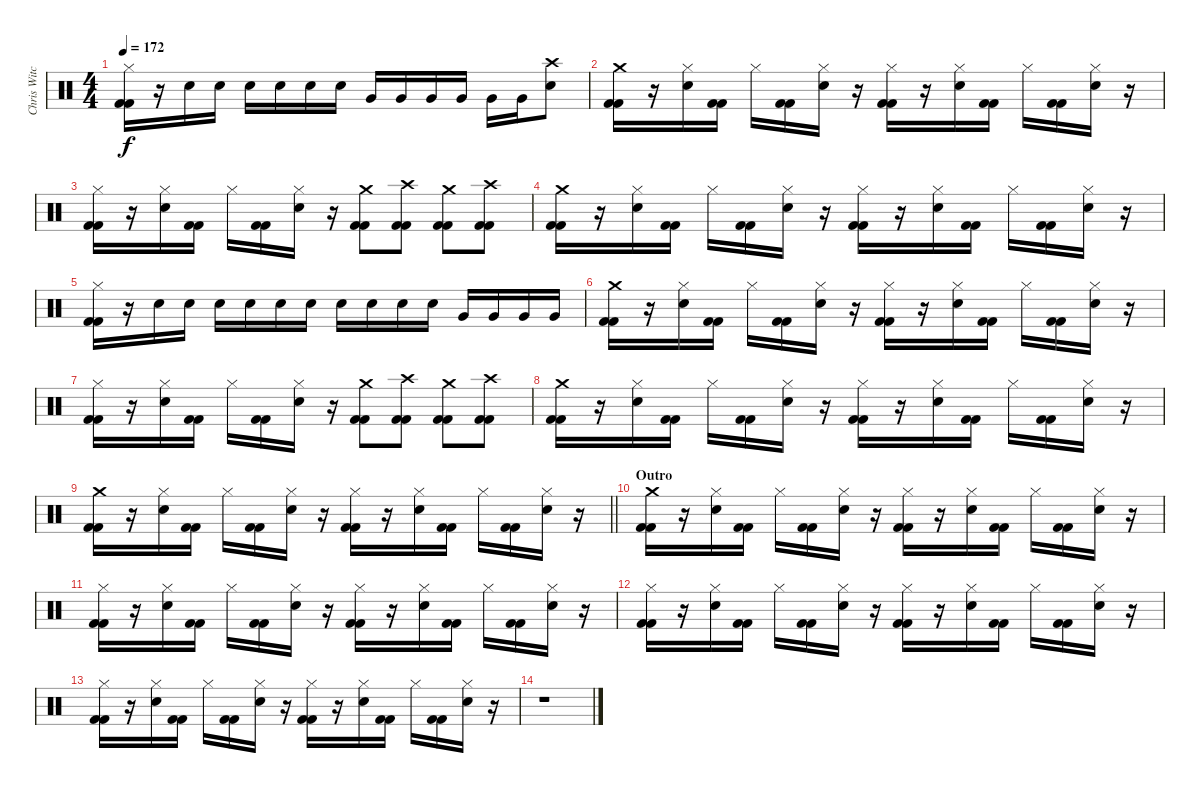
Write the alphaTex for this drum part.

\track ("Chris Witchhunter" "Chris Witc") {instrument percussion}
\staff {score}
\articulation defaults
\ts (4 4)
\tempo 172
\clef neutral
\ks c
("Kick (hit) 2" "Kick (hit) 2" "Hi-Hat (closed)").16{dy f} r.16 "Snare (hit) 2".16 "Snare (hit) 2".16 "Snare (hit) 2".16 "Snare (hit) 2".16 "Snare (hit) 2".16 "Snare (hit) 2".16 "Very Low Tom (hit)".16 "Very Low Tom (hit)".16 "Very Low Tom (hit)".16 "Very Low Tom (hit)".16 "Very Low Tom (hit)".16 "Very Low Tom (hit)".16 ("Crash high (hit)" "Snare (hit) 2").8 |
("Kick (hit) 2" "Kick (hit) 2" "Crash medium (hit)").16 r.16 ("Snare (hit) 2" "Hi-Hat (closed)").16 ("Kick (hit) 2" "Kick (hit) 2").16 "Hi-Hat (closed)".16 ("Kick (hit) 2" "Kick (hit) 2").16 ("Snare (hit) 2" "Hi-Hat (closed)").16 r.16 ("Kick (hit) 2" "Kick (hit) 2" "Hi-Hat (closed)").16 r.16 ("Snare (hit) 2" "Hi-Hat (closed)").16 ("Kick (hit) 2" "Kick (hit) 2").16 "Hi-Hat (closed)".16 ("Kick (hit) 2" "Kick (hit) 2").16 ("Snare (hit) 2" "Hi-Hat (closed)").16 r.16 |
("Kick (hit) 2" "Kick (hit) 2" "Hi-Hat (closed)").16 r.16 ("Snare (hit) 2" "Hi-Hat (closed)").16 ("Kick (hit) 2" "Kick (hit) 2").16 "Hi-Hat (closed)".16 ("Kick (hit) 2" "Kick (hit) 2").16 ("Snare (hit) 2" "Hi-Hat (closed)").16 r.16 ("Kick (hit) 2" "Kick (hit) 2" "Crash medium (hit)").8 ("Kick (hit) 2" "Kick (hit) 2" "Crash high (hit)").8 ("Kick (hit) 2" "Kick (hit) 2" "Crash medium (hit)").8 ("Kick (hit) 2" "Kick (hit) 2" "Crash high (hit)").8 |
("Kick (hit) 2" "Kick (hit) 2" "Crash medium (hit)").16 r.16 ("Snare (hit) 2" "Hi-Hat (closed)").16 ("Kick (hit) 2" "Kick (hit) 2").16 "Hi-Hat (closed)".16 ("Kick (hit) 2" "Kick (hit) 2").16 ("Snare (hit) 2" "Hi-Hat (closed)").16 r.16 ("Kick (hit) 2" "Kick (hit) 2" "Hi-Hat (closed)").16 r.16 ("Snare (hit) 2" "Hi-Hat (closed)").16 ("Kick (hit) 2" "Kick (hit) 2").16 "Hi-Hat (closed)".16 ("Kick (hit) 2" "Kick (hit) 2").16 ("Snare (hit) 2" "Hi-Hat (closed)").16 r.16 |
("Kick (hit) 2" "Kick (hit) 2" "Hi-Hat (closed)").16 r.16 "Snare (hit) 2".16 "Snare (hit) 2".16 "Snare (hit) 2".16 "Snare (hit) 2".16 "Snare (hit) 2".16 "Snare (hit) 2".16 "Snare (hit) 2".16 "Snare (hit) 2".16 "Snare (hit) 2".16 "Snare (hit) 2".16 "Very Low Tom (hit)".16 "Very Low Tom (hit)".16 "Very Low Tom (hit)".16 "Very Low Tom (hit)".16 |
("Kick (hit) 2" "Kick (hit) 2" "Crash medium (hit)").16 r.16 ("Snare (hit) 2" "Hi-Hat (closed)").16 ("Kick (hit) 2" "Kick (hit) 2").16 "Hi-Hat (closed)".16 ("Kick (hit) 2" "Kick (hit) 2").16 ("Snare (hit) 2" "Hi-Hat (closed)").16 r.16 ("Kick (hit) 2" "Kick (hit) 2" "Hi-Hat (closed)").16 r.16 ("Snare (hit) 2" "Hi-Hat (closed)").16 ("Kick (hit) 2" "Kick (hit) 2").16 "Hi-Hat (closed)".16 ("Kick (hit) 2" "Kick (hit) 2").16 ("Snare (hit) 2" "Hi-Hat (closed)").16 r.16 |
("Kick (hit) 2" "Kick (hit) 2" "Hi-Hat (closed)").16 r.16 ("Snare (hit) 2" "Hi-Hat (closed)").16 ("Kick (hit) 2" "Kick (hit) 2").16 "Hi-Hat (closed)".16 ("Kick (hit) 2" "Kick (hit) 2").16 ("Snare (hit) 2" "Hi-Hat (closed)").16 r.16 ("Kick (hit) 2" "Kick (hit) 2" "Crash medium (hit)").8 ("Kick (hit) 2" "Kick (hit) 2" "Crash high (hit)").8 ("Kick (hit) 2" "Kick (hit) 2" "Crash medium (hit)").8 ("Kick (hit) 2" "Kick (hit) 2" "Crash high (hit)").8 |
("Kick (hit) 2" "Kick (hit) 2" "Crash medium (hit)").16 r.16 ("Snare (hit) 2" "Hi-Hat (closed)").16 ("Kick (hit) 2" "Kick (hit) 2").16 "Hi-Hat (closed)".16 ("Kick (hit) 2" "Kick (hit) 2").16 ("Snare (hit) 2" "Hi-Hat (closed)").16 r.16 ("Kick (hit) 2" "Kick (hit) 2" "Hi-Hat (closed)").16 r.16 ("Snare (hit) 2" "Hi-Hat (closed)").16 ("Kick (hit) 2" "Kick (hit) 2").16 "Hi-Hat (closed)".16 ("Kick (hit) 2" "Kick (hit) 2").16 ("Snare (hit) 2" "Hi-Hat (closed)").16 r.16 |
\barLineRight lightlight
("Kick (hit) 2" "Kick (hit) 2" "Crash medium (hit)").16 r.16 ("Snare (hit) 2" "Hi-Hat (closed)").16 ("Kick (hit) 2" "Kick (hit) 2").16 "Hi-Hat (closed)".16 ("Kick (hit) 2" "Kick (hit) 2").16 ("Snare (hit) 2" "Hi-Hat (closed)").16 r.16 ("Kick (hit) 2" "Kick (hit) 2" "Hi-Hat (closed)").16 r.16 ("Snare (hit) 2" "Hi-Hat (closed)").16 ("Kick (hit) 2" "Kick (hit) 2").16 "Hi-Hat (closed)".16 ("Kick (hit) 2" "Kick (hit) 2").16 ("Snare (hit) 2" "Hi-Hat (closed)").16 r.16 |
\section ("" "Outro")
("Kick (hit) 2" "Kick (hit) 2" "Crash medium (hit)").16 r.16 ("Snare (hit) 2" "Hi-Hat (closed)").16 ("Kick (hit) 2" "Kick (hit) 2").16 "Hi-Hat (closed)".16 ("Kick (hit) 2" "Kick (hit) 2").16 ("Snare (hit) 2" "Hi-Hat (closed)").16 r.16 ("Kick (hit) 2" "Kick (hit) 2" "Hi-Hat (closed)").16 r.16 ("Snare (hit) 2" "Hi-Hat (closed)").16 ("Kick (hit) 2" "Kick (hit) 2").16 "Hi-Hat (closed)".16 ("Kick (hit) 2" "Kick (hit) 2").16 ("Snare (hit) 2" "Hi-Hat (closed)").16 r.16 |
("Kick (hit) 2" "Kick (hit) 2" "Hi-Hat (closed)").16 r.16 ("Snare (hit) 2" "Hi-Hat (closed)").16 ("Kick (hit) 2" "Kick (hit) 2").16 "Hi-Hat (closed)".16 ("Kick (hit) 2" "Kick (hit) 2").16 ("Snare (hit) 2" "Hi-Hat (closed)").16 r.16 ("Kick (hit) 2" "Kick (hit) 2" "Hi-Hat (closed)").16 r.16 ("Snare (hit) 2" "Hi-Hat (closed)").16 ("Kick (hit) 2" "Kick (hit) 2").16 "Hi-Hat (closed)".16 ("Kick (hit) 2" "Kick (hit) 2").16 ("Snare (hit) 2" "Hi-Hat (closed)").16 r.16 |
("Kick (hit) 2" "Kick (hit) 2" "Hi-Hat (closed)").16 r.16 ("Snare (hit) 2" "Hi-Hat (closed)").16 ("Kick (hit) 2" "Kick (hit) 2").16 "Hi-Hat (closed)".16 ("Kick (hit) 2" "Kick (hit) 2").16 ("Snare (hit) 2" "Hi-Hat (closed)").16 r.16 ("Kick (hit) 2" "Kick (hit) 2" "Hi-Hat (closed)").16 r.16 ("Snare (hit) 2" "Hi-Hat (closed)").16 ("Kick (hit) 2" "Kick (hit) 2").16 "Hi-Hat (closed)".16 ("Kick (hit) 2" "Kick (hit) 2").16 ("Snare (hit) 2" "Hi-Hat (closed)").16 r.16 |
("Kick (hit) 2" "Kick (hit) 2" "Hi-Hat (closed)").16 r.16 ("Snare (hit) 2" "Hi-Hat (closed)").16 ("Kick (hit) 2" "Kick (hit) 2").16 "Hi-Hat (closed)".16 ("Kick (hit) 2" "Kick (hit) 2").16 ("Snare (hit) 2" "Hi-Hat (closed)").16 r.16 ("Kick (hit) 2" "Kick (hit) 2" "Hi-Hat (closed)").16 r.16 ("Snare (hit) 2" "Hi-Hat (closed)").16 ("Kick (hit) 2" "Kick (hit) 2").16 "Hi-Hat (closed)".16 ("Kick (hit) 2" "Kick (hit) 2").16 ("Snare (hit) 2" "Hi-Hat (closed)").16 r.16 |
r.1
